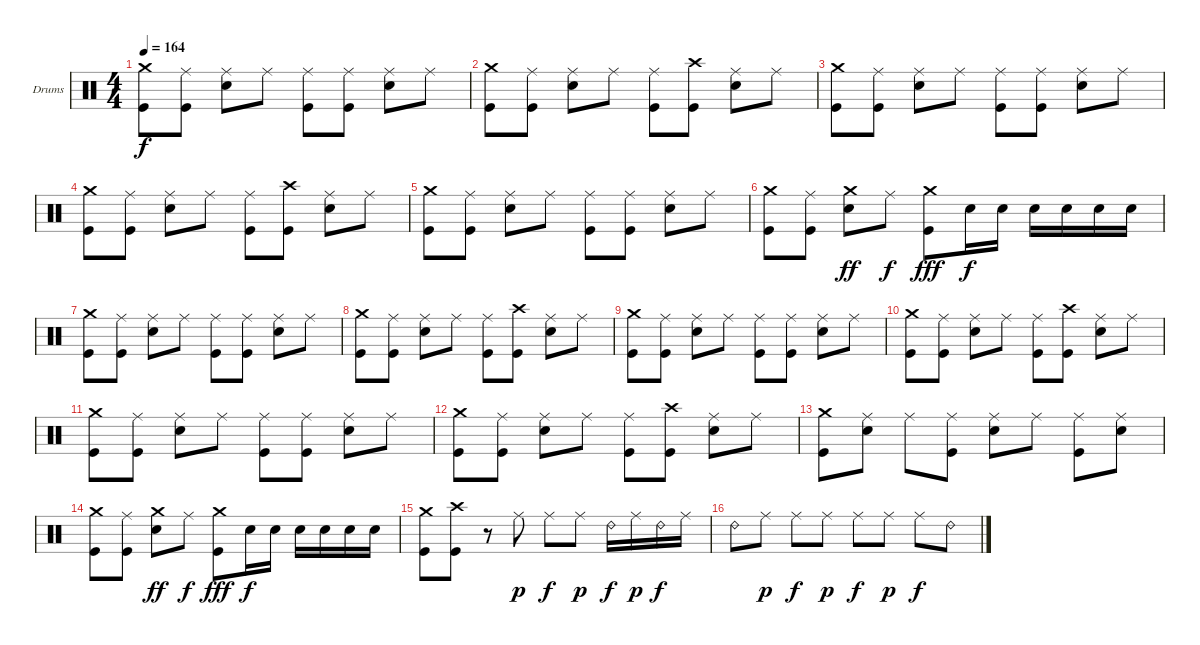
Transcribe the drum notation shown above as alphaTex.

\defaultSystemsLayout 4
\bracketExtendMode nobrackets
\firstSystemTrackNameOrientation horizontal
\otherSystemsTrackNameOrientation horizontal
\track ("Dave Abbruzzese" "Drums") {solo instrument percussion}
\staff {score}
\articulation defaults
\ts (4 4)
\tempo 164
\clef neutral
\ks c
("Kick (hit)" "Crash medium (hit)").8{dy f} ("Kick (hit)" "Ride (middle)").8 ("Snare (hit) 2" "Ride (middle)").8 "Ride (middle)".8 ("Kick (hit)" "Ride (middle)").8 ("Kick (hit)" "Ride (middle)").8 ("Snare (hit) 2" "Ride (middle)").8 "Ride (middle)".8 |
("Kick (hit)" "Crash medium (hit)").8 ("Kick (hit)" "Ride (middle)").8 ("Snare (hit) 2" "Ride (middle)").8 "Ride (middle)".8 ("Kick (hit)" "Ride (middle)").8 ("Kick (hit)" "Crash high (hit)").8 ("Snare (hit) 2" "Ride (middle)").8 "Ride (middle)".8 |
("Kick (hit)" "Crash medium (hit)").8 ("Kick (hit)" "Ride (middle)").8 ("Snare (hit) 2" "Ride (middle)").8 "Ride (middle)".8 ("Kick (hit)" "Ride (middle)").8 ("Kick (hit)" "Ride (middle)").8 ("Snare (hit) 2" "Ride (middle)").8 "Ride (middle)".8 |
("Kick (hit)" "Crash medium (hit)").8 ("Kick (hit)" "Ride (middle)").8 ("Snare (hit) 2" "Ride (middle)").8 "Ride (middle)".8 ("Kick (hit)" "Ride (middle)").8 ("Kick (hit)" "Crash high (hit)").8 ("Snare (hit) 2" "Ride (middle)").8 "Ride (middle)".8 |
("Kick (hit)" "Crash medium (hit)").8 ("Kick (hit)" "Ride (middle)").8 ("Snare (hit) 2" "Ride (middle)").8 "Ride (middle)".8 ("Kick (hit)" "Ride (middle)").8 ("Kick (hit)" "Ride (middle)").8 ("Snare (hit) 2" "Ride (middle)").8 "Ride (middle)".8 |
("Crash medium (hit)" "Kick (hit)").8 ("Kick (hit)" "Ride (middle)").8 ("Crash medium (hit)" "Snare (hit) 2").8{dy ff} "Ride (middle)".8{dy f} ("Crash medium (hit)" "Kick (hit)").8{dy fff} "Snare (hit) 2".16{dy f} "Snare (hit) 2".16 "Snare (hit) 2".16 "Snare (hit) 2".16 "Snare (hit) 2".16 "Snare (hit) 2".16 |
("Kick (hit)" "Crash medium (hit)").8 ("Kick (hit)" "Ride (middle)").8 ("Snare (hit) 2" "Ride (middle)").8 "Ride (middle)".8 ("Kick (hit)" "Ride (middle)").8 ("Kick (hit)" "Ride (middle)").8 ("Snare (hit) 2" "Ride (middle)").8 "Ride (middle)".8 |
("Kick (hit)" "Crash medium (hit)").8 ("Kick (hit)" "Ride (middle)").8 ("Snare (hit) 2" "Ride (middle)").8 "Ride (middle)".8 ("Kick (hit)" "Ride (middle)").8 ("Kick (hit)" "Crash high (hit)").8 ("Snare (hit) 2" "Ride (middle)").8 "Ride (middle)".8 |
("Kick (hit)" "Crash medium (hit)").8 ("Kick (hit)" "Ride (middle)").8 ("Snare (hit) 2" "Ride (middle)").8 "Ride (middle)".8 ("Kick (hit)" "Ride (middle)").8 ("Kick (hit)" "Ride (middle)").8 ("Snare (hit) 2" "Ride (middle)").8 "Ride (middle)".8 |
("Kick (hit)" "Crash medium (hit)").8 ("Kick (hit)" "Ride (middle)").8 ("Snare (hit) 2" "Ride (middle)").8 "Ride (middle)".8 ("Kick (hit)" "Ride (middle)").8 ("Kick (hit)" "Crash high (hit)").8 ("Snare (hit) 2" "Ride (middle)").8 "Ride (middle)".8 |
("Kick (hit)" "Crash medium (hit)").8 ("Kick (hit)" "Ride (middle)").8 ("Snare (hit) 2" "Ride (middle)").8 "Ride (middle)".8 ("Kick (hit)" "Ride (middle)").8 ("Kick (hit)" "Ride (middle)").8 ("Snare (hit) 2" "Ride (middle)").8 "Ride (middle)".8 |
("Kick (hit)" "Crash medium (hit)").8 ("Kick (hit)" "Ride (middle)").8 ("Snare (hit) 2" "Ride (middle)").8 "Ride (middle)".8 ("Kick (hit)" "Ride (middle)").8 ("Kick (hit)" "Crash high (hit)").8 ("Snare (hit) 2" "Ride (middle)").8 "Ride (middle)".8 |
("Kick (hit)" "Crash medium (hit)").8 ("Snare (hit) 2" "Ride (middle)").8 "Ride (middle)".8 ("Kick (hit)" "Ride (middle)").8 ("Snare (hit) 2" "Ride (middle)").8 "Ride (middle)".8 ("Kick (hit)" "Ride (middle)").8 ("Snare (hit) 2" "Ride (middle)").8 |
("Crash medium (hit)" "Kick (hit)").8 ("Kick (hit)" "Ride (middle)").8 ("Crash medium (hit)" "Snare (hit) 2").8{dy ff} "Ride (middle)".8{dy f} ("Crash medium (hit)" "Kick (hit)").8{dy fff} "Snare (hit) 2".16{dy f} "Snare (hit) 2".16 "Snare (hit) 2".16 "Snare (hit) 2".16 "Snare (hit) 2".16 "Snare (hit) 2".16 |
("Crash medium (hit)" "Kick (hit)").8 ("Crash high (hit)" "Kick (hit)").8 r.8 "Ride (middle)".8{dy p} "Ride (middle)".8{dy f} "Ride (middle)".8{dy p} "Ride (bell) 2".16{dy f} "Ride (middle)".16{dy p} "Ride (bell) 2".16{dy f} "Ride (middle)".16 |
"Ride (bell) 2".8 "Ride (middle)".8{dy p} "Ride (middle)".8{dy f} "Ride (middle)".8{dy p} "Ride (middle)".8{dy f} "Ride (middle)".8{dy p} "Ride (middle)".8{dy f} "Ride (bell) 2".8
